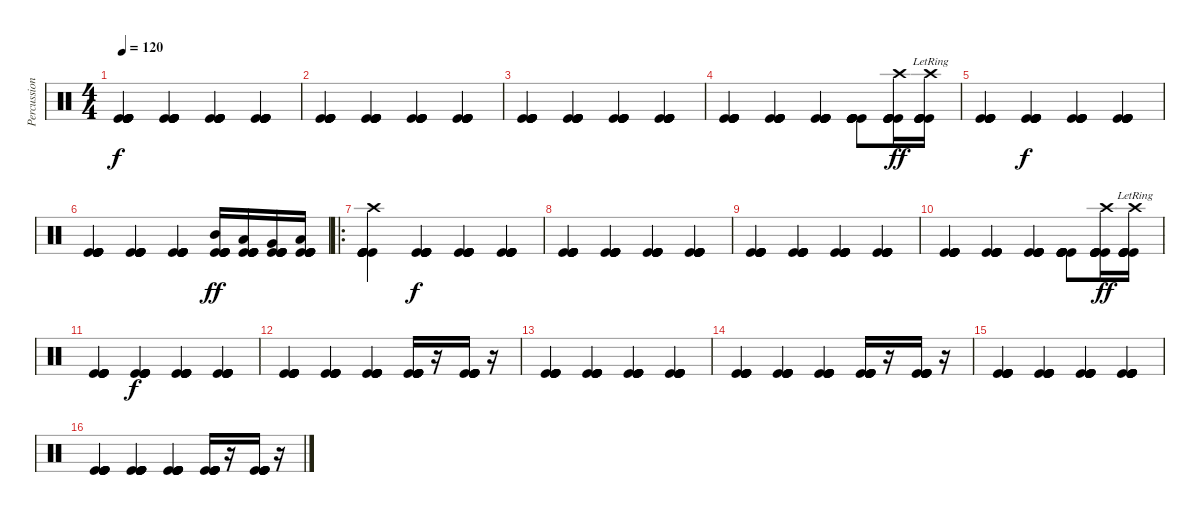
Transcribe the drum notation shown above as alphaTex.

\track ("Percussion" "Percussion") {instrument percussion}
\staff {score}
\articulation defaults
\ts (4 4)
\tempo 120
\clef neutral
\ks c
("Kick (hit)" "Kick (hit)" "Kick (hit)" "Kick (hit)" "Kick (hit)" "Kick (hit)").4{dy f} ("Kick (hit)" "Kick (hit)" "Kick (hit)" "Kick (hit)" "Kick (hit)" "Kick (hit)").4 ("Kick (hit)" "Kick (hit)" "Kick (hit)" "Kick (hit)" "Kick (hit)" "Kick (hit)").4 ("Kick (hit)" "Kick (hit)" "Kick (hit)" "Kick (hit)" "Kick (hit)" "Kick (hit)").4 |
("Kick (hit)" "Kick (hit)" "Kick (hit)" "Kick (hit)" "Kick (hit)" "Kick (hit)").4 ("Kick (hit)" "Kick (hit)" "Kick (hit)" "Kick (hit)" "Kick (hit)" "Kick (hit)").4 ("Kick (hit)" "Kick (hit)" "Kick (hit)" "Kick (hit)" "Kick (hit)" "Kick (hit)").4 ("Kick (hit)" "Kick (hit)" "Kick (hit)" "Kick (hit)" "Kick (hit)" "Kick (hit)").4 |
("Kick (hit)" "Kick (hit)" "Kick (hit)" "Kick (hit)" "Kick (hit)" "Kick (hit)").4 ("Kick (hit)" "Kick (hit)" "Kick (hit)" "Kick (hit)" "Kick (hit)" "Kick (hit)").4 ("Kick (hit)" "Kick (hit)" "Kick (hit)" "Kick (hit)" "Kick (hit)" "Kick (hit)").4 ("Kick (hit)" "Kick (hit)" "Kick (hit)" "Kick (hit)" "Kick (hit)" "Kick (hit)").4 |
("Kick (hit)" "Kick (hit)" "Kick (hit)" "Kick (hit)" "Kick (hit)" "Kick (hit)").4 ("Kick (hit)" "Kick (hit)" "Kick (hit)" "Kick (hit)" "Kick (hit)" "Kick (hit)").4 ("Kick (hit)" "Kick (hit)" "Kick (hit)" "Kick (hit)" "Kick (hit)" "Kick (hit)").4 ("Kick (hit)" "Kick (hit)" "Kick (hit)" "Kick (hit)" "Kick (hit)" "Kick (hit)").8 ("Crash high (hit)" "Kick (hit)" "Kick (hit)" "Kick (hit)" "Kick (hit)" "Kick (hit)").16{dy ff} ("Crash high (hit)"{lr} "Kick (hit)" "Kick (hit)" "Kick (hit)" "Kick (hit)" "Kick (hit)").16 |
("Kick (hit)" "Kick (hit)" "Kick (hit)" "Kick (hit)" "Kick (hit)").4 ("Kick (hit)" "Kick (hit)" "Kick (hit)" "Kick (hit)" "Kick (hit)" "Kick (hit)").4{dy f} ("Kick (hit)" "Kick (hit)" "Kick (hit)" "Kick (hit)" "Kick (hit)" "Kick (hit)").4 ("Kick (hit)" "Kick (hit)" "Kick (hit)" "Kick (hit)" "Kick (hit)" "Kick (hit)").4 |
("Kick (hit)" "Kick (hit)" "Kick (hit)" "Kick (hit)" "Kick (hit)" "Kick (hit)").4 ("Kick (hit)" "Kick (hit)" "Kick (hit)" "Kick (hit)" "Kick (hit)" "Kick (hit)").4 ("Kick (hit)" "Kick (hit)" "Kick (hit)" "Kick (hit)" "Kick (hit)" "Kick (hit)").4 ("Mid Tom (hit)" "Kick (hit)" "Kick (hit)" "Kick (hit)" "Kick (hit)" "Kick (hit)").16{dy ff} ("Low Tom (hit)" "Kick (hit)" "Kick (hit)" "Kick (hit)" "Kick (hit)" "Kick (hit)").16 ("Very Low Tom (hit)" "Kick (hit)" "Kick (hit)" "Kick (hit)" "Kick (hit)" "Kick (hit)").16 ("Low Floor Tom (hit)" "Kick (hit)" "Kick (hit)" "Kick (hit)" "Kick (hit)" "Kick (hit)").16 |
\ro
("Crash high (hit)" "Kick (hit)" "Kick (hit)" "Kick (hit)" "Kick (hit)" "Kick (hit)").4 ("Kick (hit)" "Kick (hit)" "Kick (hit)" "Kick (hit)" "Kick (hit)" "Kick (hit)").4{dy f} ("Kick (hit)" "Kick (hit)" "Kick (hit)" "Kick (hit)" "Kick (hit)" "Kick (hit)").4 ("Kick (hit)" "Kick (hit)" "Kick (hit)" "Kick (hit)" "Kick (hit)" "Kick (hit)").4 |
("Kick (hit)" "Kick (hit)" "Kick (hit)" "Kick (hit)" "Kick (hit)" "Kick (hit)").4 ("Kick (hit)" "Kick (hit)" "Kick (hit)" "Kick (hit)" "Kick (hit)" "Kick (hit)").4 ("Kick (hit)" "Kick (hit)" "Kick (hit)" "Kick (hit)" "Kick (hit)" "Kick (hit)").4 ("Kick (hit)" "Kick (hit)" "Kick (hit)" "Kick (hit)" "Kick (hit)" "Kick (hit)").4 |
("Kick (hit)" "Kick (hit)" "Kick (hit)" "Kick (hit)" "Kick (hit)" "Kick (hit)").4 ("Kick (hit)" "Kick (hit)" "Kick (hit)" "Kick (hit)" "Kick (hit)" "Kick (hit)").4 ("Kick (hit)" "Kick (hit)" "Kick (hit)" "Kick (hit)" "Kick (hit)" "Kick (hit)").4 ("Kick (hit)" "Kick (hit)" "Kick (hit)" "Kick (hit)" "Kick (hit)" "Kick (hit)").4 |
("Kick (hit)" "Kick (hit)" "Kick (hit)" "Kick (hit)" "Kick (hit)" "Kick (hit)").4 ("Kick (hit)" "Kick (hit)" "Kick (hit)" "Kick (hit)" "Kick (hit)" "Kick (hit)").4 ("Kick (hit)" "Kick (hit)" "Kick (hit)" "Kick (hit)" "Kick (hit)" "Kick (hit)").4 ("Kick (hit)" "Kick (hit)" "Kick (hit)" "Kick (hit)" "Kick (hit)" "Kick (hit)").8 ("Crash high (hit)" "Kick (hit)" "Kick (hit)" "Kick (hit)" "Kick (hit)" "Kick (hit)").16{dy ff} ("Crash high (hit)"{lr} "Kick (hit)" "Kick (hit)" "Kick (hit)" "Kick (hit)" "Kick (hit)").16 |
("Kick (hit)" "Kick (hit)" "Kick (hit)" "Kick (hit)" "Kick (hit)").4 ("Kick (hit)" "Kick (hit)" "Kick (hit)" "Kick (hit)" "Kick (hit)" "Kick (hit)").4{dy f} ("Kick (hit)" "Kick (hit)" "Kick (hit)" "Kick (hit)" "Kick (hit)" "Kick (hit)").4 ("Kick (hit)" "Kick (hit)" "Kick (hit)" "Kick (hit)" "Kick (hit)" "Kick (hit)").4 |
("Kick (hit)" "Kick (hit)" "Kick (hit)" "Kick (hit)" "Kick (hit)" "Kick (hit)").4 ("Kick (hit)" "Kick (hit)" "Kick (hit)" "Kick (hit)" "Kick (hit)" "Kick (hit)").4 ("Kick (hit)" "Kick (hit)" "Kick (hit)" "Kick (hit)" "Kick (hit)" "Kick (hit)").4 ("Kick (hit)" "Kick (hit)" "Kick (hit)" "Kick (hit)" "Kick (hit)" "Kick (hit)").16 r.16 ("Kick (hit)" "Kick (hit)" "Kick (hit)" "Kick (hit)" "Kick (hit)" "Kick (hit)").16 r.16 |
("Kick (hit)" "Kick (hit)" "Kick (hit)" "Kick (hit)" "Kick (hit)" "Kick (hit)").4 ("Kick (hit)" "Kick (hit)" "Kick (hit)" "Kick (hit)" "Kick (hit)" "Kick (hit)").4 ("Kick (hit)" "Kick (hit)" "Kick (hit)" "Kick (hit)" "Kick (hit)" "Kick (hit)").4 ("Kick (hit)" "Kick (hit)" "Kick (hit)" "Kick (hit)" "Kick (hit)" "Kick (hit)").4 |
("Kick (hit)" "Kick (hit)" "Kick (hit)" "Kick (hit)" "Kick (hit)" "Kick (hit)").4 ("Kick (hit)" "Kick (hit)" "Kick (hit)" "Kick (hit)" "Kick (hit)" "Kick (hit)").4 ("Kick (hit)" "Kick (hit)" "Kick (hit)" "Kick (hit)" "Kick (hit)" "Kick (hit)").4 ("Kick (hit)" "Kick (hit)" "Kick (hit)" "Kick (hit)" "Kick (hit)" "Kick (hit)").16 r.16 ("Kick (hit)" "Kick (hit)" "Kick (hit)" "Kick (hit)" "Kick (hit)" "Kick (hit)").16 r.16 |
("Kick (hit)" "Kick (hit)" "Kick (hit)" "Kick (hit)" "Kick (hit)" "Kick (hit)").4 ("Kick (hit)" "Kick (hit)" "Kick (hit)" "Kick (hit)" "Kick (hit)" "Kick (hit)").4 ("Kick (hit)" "Kick (hit)" "Kick (hit)" "Kick (hit)" "Kick (hit)" "Kick (hit)").4 ("Kick (hit)" "Kick (hit)" "Kick (hit)" "Kick (hit)" "Kick (hit)" "Kick (hit)").4 |
("Kick (hit)" "Kick (hit)" "Kick (hit)" "Kick (hit)" "Kick (hit)" "Kick (hit)").4 ("Kick (hit)" "Kick (hit)" "Kick (hit)" "Kick (hit)" "Kick (hit)" "Kick (hit)").4 ("Kick (hit)" "Kick (hit)" "Kick (hit)" "Kick (hit)" "Kick (hit)" "Kick (hit)").4 ("Kick (hit)" "Kick (hit)" "Kick (hit)" "Kick (hit)" "Kick (hit)" "Kick (hit)").16 r.16 ("Kick (hit)" "Kick (hit)" "Kick (hit)" "Kick (hit)" "Kick (hit)" "Kick (hit)").16 r.16
